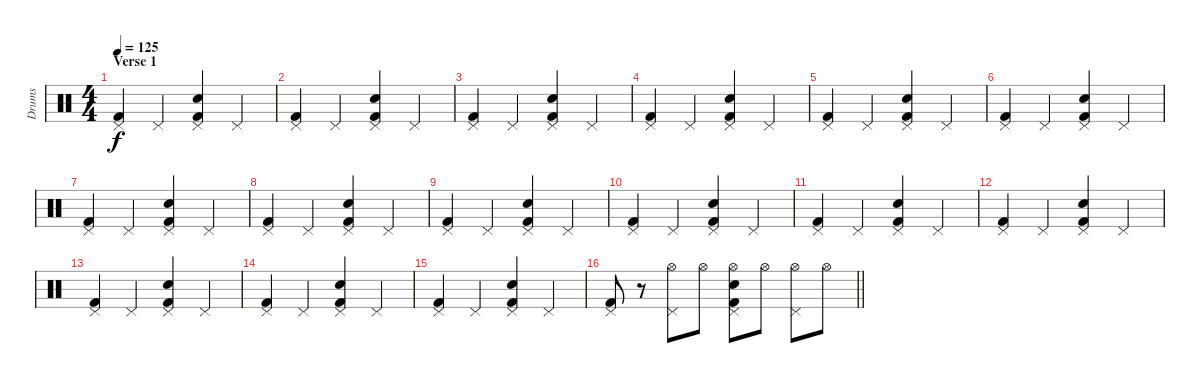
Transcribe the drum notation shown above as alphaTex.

\track ("Drums" "Drums") {instrument percussion}
\staff {score}
\articulation defaults
\ts (4 4)
\section ("" "Verse 1")
\tempo 125
\clef neutral
\ks c
("Pedal Hi-Hat (hit)" "Kick (hit) 2").4{dy f} "Pedal Hi-Hat (hit)".4 ("Pedal Hi-Hat (hit)" "Electric Snare (hit)" "Kick (hit) 2").4 "Pedal Hi-Hat (hit)".4 |
("Pedal Hi-Hat (hit)" "Kick (hit) 2").4 "Pedal Hi-Hat (hit)".4 ("Pedal Hi-Hat (hit)" "Electric Snare (hit)" "Kick (hit) 2").4 "Pedal Hi-Hat (hit)".4 |
("Pedal Hi-Hat (hit)" "Kick (hit) 2").4 "Pedal Hi-Hat (hit)".4 ("Pedal Hi-Hat (hit)" "Electric Snare (hit)" "Kick (hit) 2").4 "Pedal Hi-Hat (hit)".4 |
("Pedal Hi-Hat (hit)" "Kick (hit) 2").4 "Pedal Hi-Hat (hit)".4 ("Pedal Hi-Hat (hit)" "Electric Snare (hit)" "Kick (hit) 2").4 "Pedal Hi-Hat (hit)".4 |
("Pedal Hi-Hat (hit)" "Kick (hit) 2").4 "Pedal Hi-Hat (hit)".4 ("Pedal Hi-Hat (hit)" "Electric Snare (hit)" "Kick (hit) 2").4 "Pedal Hi-Hat (hit)".4 |
("Pedal Hi-Hat (hit)" "Kick (hit) 2").4 "Pedal Hi-Hat (hit)".4 ("Pedal Hi-Hat (hit)" "Electric Snare (hit)" "Kick (hit) 2").4 "Pedal Hi-Hat (hit)".4 |
("Pedal Hi-Hat (hit)" "Kick (hit) 2").4 "Pedal Hi-Hat (hit)".4 ("Pedal Hi-Hat (hit)" "Electric Snare (hit)" "Kick (hit) 2").4 "Pedal Hi-Hat (hit)".4 |
("Pedal Hi-Hat (hit)" "Kick (hit) 2").4 "Pedal Hi-Hat (hit)".4 ("Pedal Hi-Hat (hit)" "Electric Snare (hit)" "Kick (hit) 2").4 "Pedal Hi-Hat (hit)".4 |
("Pedal Hi-Hat (hit)" "Kick (hit) 2").4 "Pedal Hi-Hat (hit)".4 ("Pedal Hi-Hat (hit)" "Electric Snare (hit)" "Kick (hit) 2").4 "Pedal Hi-Hat (hit)".4 |
("Pedal Hi-Hat (hit)" "Kick (hit) 2").4 "Pedal Hi-Hat (hit)".4 ("Pedal Hi-Hat (hit)" "Electric Snare (hit)" "Kick (hit) 2").4 "Pedal Hi-Hat (hit)".4 |
("Pedal Hi-Hat (hit)" "Kick (hit) 2").4 "Pedal Hi-Hat (hit)".4 ("Pedal Hi-Hat (hit)" "Electric Snare (hit)" "Kick (hit) 2").4 "Pedal Hi-Hat (hit)".4 |
("Pedal Hi-Hat (hit)" "Kick (hit) 2").4 "Pedal Hi-Hat (hit)".4 ("Pedal Hi-Hat (hit)" "Electric Snare (hit)" "Kick (hit) 2").4 "Pedal Hi-Hat (hit)".4 |
("Pedal Hi-Hat (hit)" "Kick (hit) 2").4 "Pedal Hi-Hat (hit)".4 ("Pedal Hi-Hat (hit)" "Electric Snare (hit)" "Kick (hit) 2").4 "Pedal Hi-Hat (hit)".4 |
("Pedal Hi-Hat (hit)" "Kick (hit) 2").4 "Pedal Hi-Hat (hit)".4 ("Pedal Hi-Hat (hit)" "Electric Snare (hit)" "Kick (hit) 2").4 "Pedal Hi-Hat (hit)".4 |
("Pedal Hi-Hat (hit)" "Kick (hit) 2").4 "Pedal Hi-Hat (hit)".4 ("Pedal Hi-Hat (hit)" "Electric Snare (hit)" "Kick (hit) 2").4 "Pedal Hi-Hat (hit)".4 |
\barLineRight lightlight
("Pedal Hi-Hat (hit)" "Kick (hit) 2").8 r.8 ("Hi-Hat (open)" "Pedal Hi-Hat (hit)").8 "Hi-Hat (open)".8 ("Hi-Hat (open)" "Pedal Hi-Hat (hit)" "Electric Snare (hit)" "Kick (hit) 2").8 "Hi-Hat (open)".8 ("Hi-Hat (open)" "Pedal Hi-Hat (hit)").8 "Hi-Hat (open)".8
